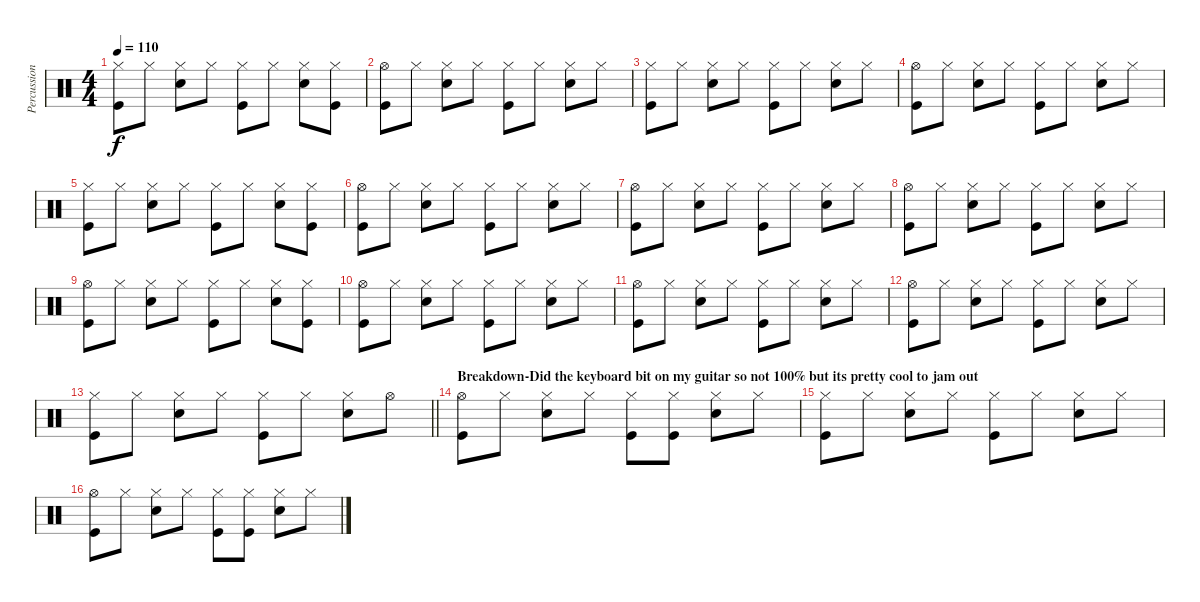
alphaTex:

\track ("Percussion" "Percussion") {instrument percussion}
\staff {score}
\articulation defaults
\ts (4 4)
\tempo 110
\clef neutral
\ks c
("Hi-Hat (closed)" "Kick (hit)").8{dy f} "Hi-Hat (closed)".8 ("Hi-Hat (closed)" "Snare (hit) 2").8 "Hi-Hat (closed)".8 ("Hi-Hat (closed)" "Kick (hit)").8 "Hi-Hat (closed)".8 ("Hi-Hat (closed)" "Snare (hit) 2").8 ("Hi-Hat (closed)" "Kick (hit)").8 |
("Hi-Hat (open)" "Kick (hit)").8 "Hi-Hat (closed)".8 ("Hi-Hat (closed)" "Snare (hit) 2").8 "Hi-Hat (closed)".8 ("Hi-Hat (closed)" "Kick (hit)").8 "Hi-Hat (closed)".8 ("Hi-Hat (closed)" "Snare (hit) 2").8 "Hi-Hat (closed)".8 |
("Hi-Hat (closed)" "Kick (hit)").8 "Hi-Hat (closed)".8 ("Hi-Hat (closed)" "Snare (hit) 2").8 "Hi-Hat (closed)".8 ("Hi-Hat (closed)" "Kick (hit)").8 "Hi-Hat (closed)".8 ("Hi-Hat (closed)" "Snare (hit) 2").8 "Hi-Hat (closed)".8 |
("Hi-Hat (open)" "Kick (hit)").8 "Hi-Hat (closed)".8 ("Hi-Hat (closed)" "Snare (hit) 2").8 "Hi-Hat (closed)".8 ("Hi-Hat (closed)" "Kick (hit)").8 "Hi-Hat (closed)".8 ("Hi-Hat (closed)" "Snare (hit) 2").8 "Hi-Hat (closed)".8 |
("Hi-Hat (closed)" "Kick (hit)").8 "Hi-Hat (closed)".8 ("Hi-Hat (closed)" "Snare (hit) 2").8 "Hi-Hat (closed)".8 ("Hi-Hat (closed)" "Kick (hit)").8 "Hi-Hat (closed)".8 ("Hi-Hat (closed)" "Snare (hit) 2").8 ("Hi-Hat (closed)" "Kick (hit)").8 |
("Hi-Hat (open)" "Kick (hit)").8 "Hi-Hat (closed)".8 ("Hi-Hat (closed)" "Snare (hit) 2").8 "Hi-Hat (closed)".8 ("Hi-Hat (closed)" "Kick (hit)").8 "Hi-Hat (closed)".8 ("Hi-Hat (closed)" "Snare (hit) 2").8 "Hi-Hat (closed)".8 |
("Hi-Hat (open)" "Kick (hit)").8 "Hi-Hat (closed)".8 ("Hi-Hat (closed)" "Snare (hit) 2").8 "Hi-Hat (closed)".8 ("Hi-Hat (closed)" "Kick (hit)").8 "Hi-Hat (closed)".8 ("Hi-Hat (closed)" "Snare (hit) 2").8 "Hi-Hat (closed)".8 |
("Hi-Hat (open)" "Kick (hit)").8 "Hi-Hat (closed)".8 ("Hi-Hat (closed)" "Snare (hit) 2").8 "Hi-Hat (closed)".8 ("Hi-Hat (closed)" "Kick (hit)").8 "Hi-Hat (closed)".8 ("Hi-Hat (closed)" "Snare (hit) 2").8 "Hi-Hat (closed)".8 |
("Hi-Hat (open)" "Kick (hit)").8 "Hi-Hat (closed)".8 ("Hi-Hat (closed)" "Snare (hit) 2").8 "Hi-Hat (closed)".8 ("Hi-Hat (closed)" "Kick (hit)").8 "Hi-Hat (closed)".8 ("Hi-Hat (closed)" "Snare (hit) 2").8 ("Hi-Hat (closed)" "Kick (hit)").8 |
("Hi-Hat (open)" "Kick (hit)").8 "Hi-Hat (closed)".8 ("Hi-Hat (closed)" "Snare (hit) 2").8 "Hi-Hat (closed)".8 ("Hi-Hat (closed)" "Kick (hit)").8 "Hi-Hat (closed)".8 ("Hi-Hat (closed)" "Snare (hit) 2").8 "Hi-Hat (closed)".8 |
("Hi-Hat (open)" "Kick (hit)").8 "Hi-Hat (closed)".8 ("Hi-Hat (closed)" "Snare (hit) 2").8 "Hi-Hat (closed)".8 ("Hi-Hat (closed)" "Kick (hit)").8 "Hi-Hat (closed)".8 ("Hi-Hat (closed)" "Snare (hit) 2").8 "Hi-Hat (closed)".8 |
("Hi-Hat (open)" "Kick (hit)").8 "Hi-Hat (closed)".8 ("Hi-Hat (closed)" "Snare (hit) 2").8 "Hi-Hat (closed)".8 ("Hi-Hat (closed)" "Kick (hit)").8 "Hi-Hat (closed)".8 ("Hi-Hat (closed)" "Snare (hit) 2").8 "Hi-Hat (closed)".8 |
\barLineRight lightlight
("Hi-Hat (closed)" "Kick (hit)").8 "Hi-Hat (closed)".8 ("Hi-Hat (closed)" "Snare (hit) 2").8 "Hi-Hat (closed)".8 ("Hi-Hat (closed)" "Kick (hit)").8 "Hi-Hat (closed)".8 ("Hi-Hat (closed)" "Snare (hit) 2").8 "Hi-Hat (open)".8 |
\section ("" "Breakdown-Did the keyboard bit on my guitar so not 100% but its pretty cool to jam out")
("Hi-Hat (open)" "Kick (hit)").8 "Hi-Hat (closed)".8 ("Hi-Hat (closed)" "Snare (hit) 2").8 "Hi-Hat (closed)".8 ("Hi-Hat (closed)" "Kick (hit)").8 ("Hi-Hat (closed)" "Kick (hit)").8 ("Hi-Hat (closed)" "Snare (hit) 2").8 "Hi-Hat (closed)".8 |
("Hi-Hat (closed)" "Kick (hit)").8 "Hi-Hat (closed)".8 ("Hi-Hat (closed)" "Snare (hit) 2").8 "Hi-Hat (closed)".8 ("Hi-Hat (closed)" "Kick (hit)").8 "Hi-Hat (closed)".8 ("Hi-Hat (closed)" "Snare (hit) 2").8 "Hi-Hat (closed)".8 |
("Hi-Hat (open)" "Kick (hit)").8 "Hi-Hat (closed)".8 ("Hi-Hat (closed)" "Snare (hit) 2").8 "Hi-Hat (closed)".8 ("Hi-Hat (closed)" "Kick (hit)").8 ("Hi-Hat (closed)" "Kick (hit)").8 ("Hi-Hat (closed)" "Snare (hit) 2").8 "Hi-Hat (closed)".8
